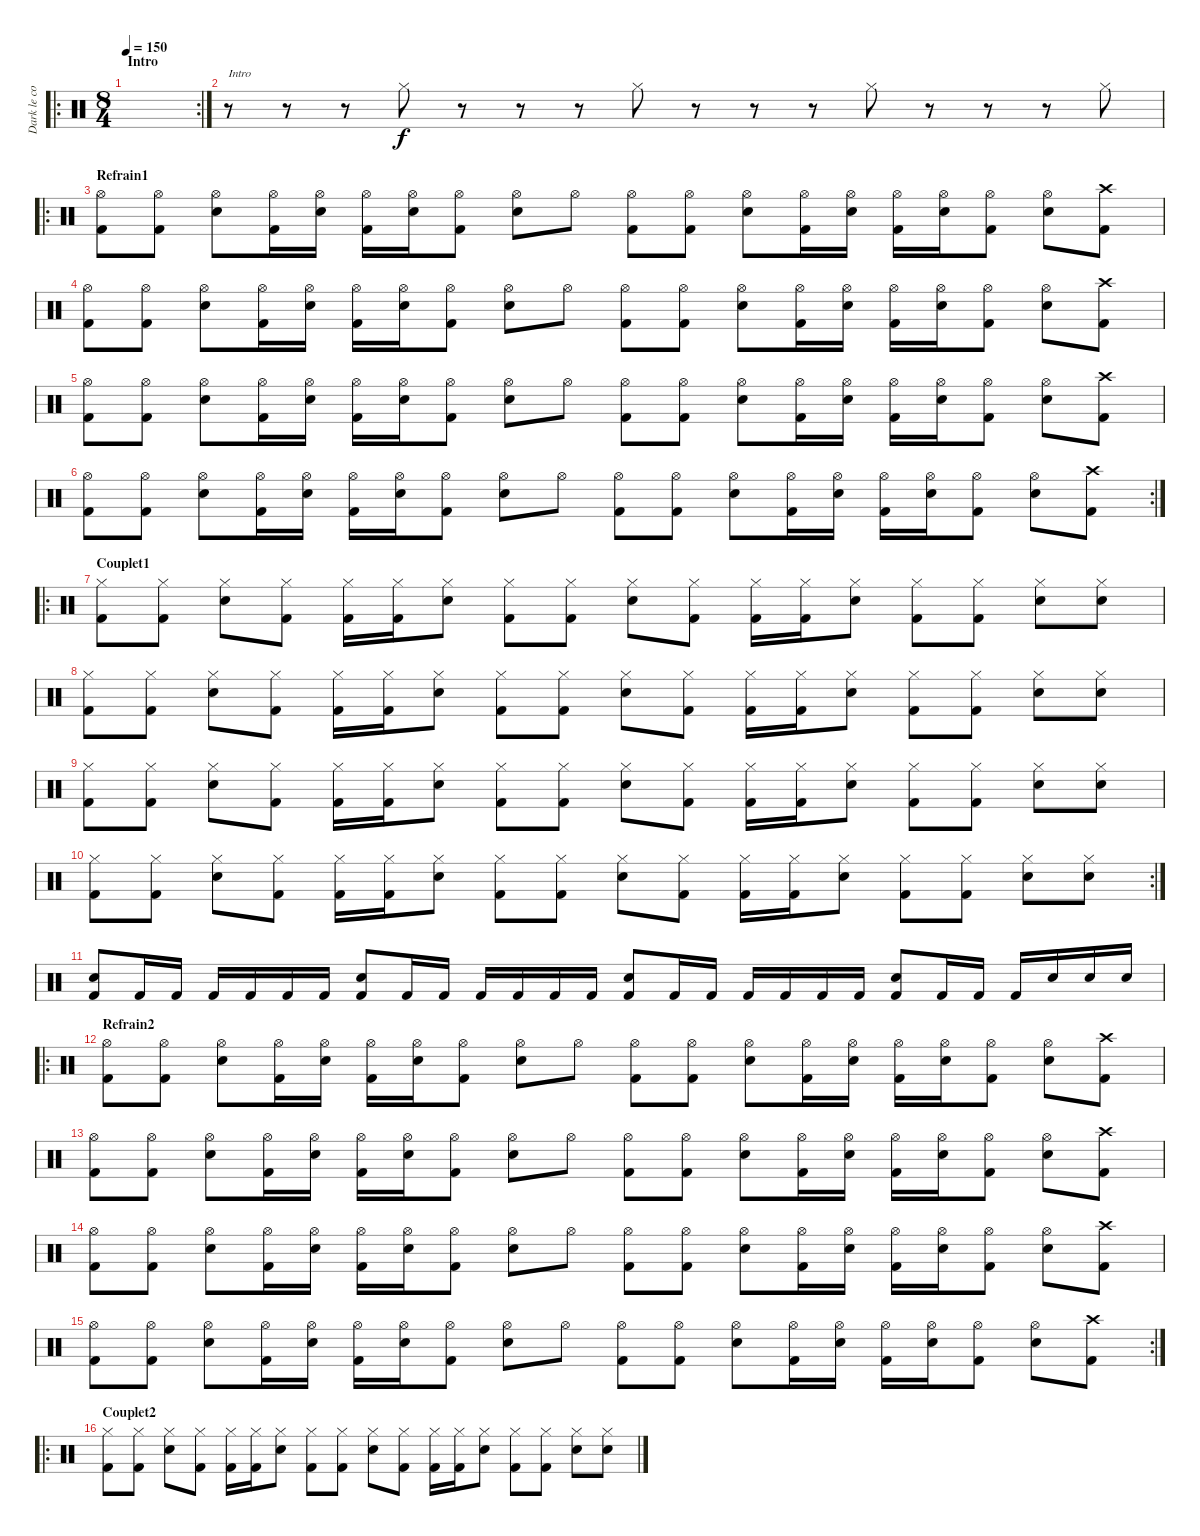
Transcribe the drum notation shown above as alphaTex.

\track ("Dark le coquet" "Dark le co") {instrument percussion}
\staff {score}
\articulation defaults
\ro
\rc 2
\ts (8 4)
\section ("" "Intro")
\tempo 150
\clef neutral
\ks c
|
r.8{txt "Intro"} r.8 r.8 "Hi-Hat (closed)".8 r.8 r.8 r.8 "Hi-Hat (closed)".8 r.8 r.8 r.8 "Hi-Hat (closed)".8 r.8 r.8 r.8 "Hi-Hat (closed)".8 |
\ro
\section ("" "Refrain1")
("Hi-Hat (open)" "Kick (hit) 2").8 ("Hi-Hat (open)" "Kick (hit) 2").8 ("Hi-Hat (open)" "Snare (hit) 2").8 ("Hi-Hat (open)" "Kick (hit) 2").16 ("Hi-Hat (open)" "Snare (hit) 2").16 ("Hi-Hat (open)" "Kick (hit) 2").16 ("Hi-Hat (open)" "Snare (hit) 2").16 ("Hi-Hat (open)" "Kick (hit) 2").8 ("Hi-Hat (open)" "Snare (hit) 2").8 "Hi-Hat (open)".8 ("Hi-Hat (open)" "Kick (hit) 2").8 ("Hi-Hat (open)" "Kick (hit) 2").8 ("Hi-Hat (open)" "Snare (hit) 2").8 ("Hi-Hat (open)" "Kick (hit) 2").16 ("Hi-Hat (open)" "Snare (hit) 2").16 ("Hi-Hat (open)" "Kick (hit) 2").16 ("Hi-Hat (open)" "Snare (hit) 2").16 ("Hi-Hat (open)" "Kick (hit) 2").8 ("Hi-Hat (open)" "Snare (hit) 2").8 ("Crash high (hit)" "Kick (hit) 2").8 |
("Hi-Hat (open)" "Kick (hit) 2").8 ("Hi-Hat (open)" "Kick (hit) 2").8 ("Hi-Hat (open)" "Snare (hit) 2").8 ("Hi-Hat (open)" "Kick (hit) 2").16 ("Hi-Hat (open)" "Snare (hit) 2").16 ("Hi-Hat (open)" "Kick (hit) 2").16 ("Hi-Hat (open)" "Snare (hit) 2").16 ("Hi-Hat (open)" "Kick (hit) 2").8 ("Hi-Hat (open)" "Snare (hit) 2").8 "Hi-Hat (open)".8 ("Hi-Hat (open)" "Kick (hit) 2").8 ("Hi-Hat (open)" "Kick (hit) 2").8 ("Hi-Hat (open)" "Snare (hit) 2").8 ("Hi-Hat (open)" "Kick (hit) 2").16 ("Hi-Hat (open)" "Snare (hit) 2").16 ("Hi-Hat (open)" "Kick (hit) 2").16 ("Hi-Hat (open)" "Snare (hit) 2").16 ("Hi-Hat (open)" "Kick (hit) 2").8 ("Hi-Hat (open)" "Snare (hit) 2").8 ("Crash high (hit)" "Kick (hit) 2").8 |
("Hi-Hat (open)" "Kick (hit) 2").8 ("Hi-Hat (open)" "Kick (hit) 2").8 ("Hi-Hat (open)" "Snare (hit) 2").8 ("Hi-Hat (open)" "Kick (hit) 2").16 ("Hi-Hat (open)" "Snare (hit) 2").16 ("Hi-Hat (open)" "Kick (hit) 2").16 ("Hi-Hat (open)" "Snare (hit) 2").16 ("Hi-Hat (open)" "Kick (hit) 2").8 ("Hi-Hat (open)" "Snare (hit) 2").8 "Hi-Hat (open)".8 ("Hi-Hat (open)" "Kick (hit) 2").8 ("Hi-Hat (open)" "Kick (hit) 2").8 ("Hi-Hat (open)" "Snare (hit) 2").8 ("Hi-Hat (open)" "Kick (hit) 2").16 ("Hi-Hat (open)" "Snare (hit) 2").16 ("Hi-Hat (open)" "Kick (hit) 2").16 ("Hi-Hat (open)" "Snare (hit) 2").16 ("Hi-Hat (open)" "Kick (hit) 2").8 ("Hi-Hat (open)" "Snare (hit) 2").8 ("Crash high (hit)" "Kick (hit) 2").8 |
\rc 2
("Hi-Hat (open)" "Kick (hit) 2").8 ("Hi-Hat (open)" "Kick (hit) 2").8 ("Hi-Hat (open)" "Snare (hit) 2").8 ("Hi-Hat (open)" "Kick (hit) 2").16 ("Hi-Hat (open)" "Snare (hit) 2").16 ("Hi-Hat (open)" "Kick (hit) 2").16 ("Hi-Hat (open)" "Snare (hit) 2").16 ("Hi-Hat (open)" "Kick (hit) 2").8 ("Hi-Hat (open)" "Snare (hit) 2").8 "Hi-Hat (open)".8 ("Hi-Hat (open)" "Kick (hit) 2").8 ("Hi-Hat (open)" "Kick (hit) 2").8 ("Hi-Hat (open)" "Snare (hit) 2").8 ("Hi-Hat (open)" "Kick (hit) 2").16 ("Hi-Hat (open)" "Snare (hit) 2").16 ("Hi-Hat (open)" "Kick (hit) 2").16 ("Hi-Hat (open)" "Snare (hit) 2").16 ("Hi-Hat (open)" "Kick (hit) 2").8 ("Hi-Hat (open)" "Snare (hit) 2").8 ("Crash high (hit)" "Kick (hit) 2").8 |
\ro
\section ("" "Couplet1")
("Hi-Hat (closed)" "Kick (hit) 2").8 ("Hi-Hat (closed)" "Kick (hit) 2").8 ("Hi-Hat (closed)" "Snare (hit) 2").8 ("Hi-Hat (closed)" "Kick (hit) 2").8 ("Hi-Hat (closed)" "Kick (hit) 2").16 ("Hi-Hat (closed)" "Kick (hit) 2").16 ("Hi-Hat (closed)" "Snare (hit) 2").8 ("Hi-Hat (closed)" "Kick (hit) 2").8 ("Hi-Hat (closed)" "Kick (hit) 2").8 ("Hi-Hat (closed)" "Snare (hit) 2").8 ("Hi-Hat (closed)" "Kick (hit) 2").8 ("Hi-Hat (closed)" "Kick (hit) 2").16 ("Hi-Hat (closed)" "Kick (hit) 2").16 ("Hi-Hat (closed)" "Snare (hit) 2").8 ("Hi-Hat (closed)" "Kick (hit) 2").8 ("Hi-Hat (closed)" "Kick (hit) 2").8 ("Hi-Hat (closed)" "Snare (hit) 2").8 ("Hi-Hat (closed)" "Snare (hit) 2").8 |
("Hi-Hat (closed)" "Kick (hit) 2").8 ("Hi-Hat (closed)" "Kick (hit) 2").8 ("Hi-Hat (closed)" "Snare (hit) 2").8 ("Hi-Hat (closed)" "Kick (hit) 2").8 ("Hi-Hat (closed)" "Kick (hit) 2").16 ("Hi-Hat (closed)" "Kick (hit) 2").16 ("Hi-Hat (closed)" "Snare (hit) 2").8 ("Hi-Hat (closed)" "Kick (hit) 2").8 ("Hi-Hat (closed)" "Kick (hit) 2").8 ("Hi-Hat (closed)" "Snare (hit) 2").8 ("Hi-Hat (closed)" "Kick (hit) 2").8 ("Hi-Hat (closed)" "Kick (hit) 2").16 ("Hi-Hat (closed)" "Kick (hit) 2").16 ("Hi-Hat (closed)" "Snare (hit) 2").8 ("Hi-Hat (closed)" "Kick (hit) 2").8 ("Hi-Hat (closed)" "Kick (hit) 2").8 ("Hi-Hat (closed)" "Snare (hit) 2").8 ("Hi-Hat (closed)" "Snare (hit) 2").8 |
("Hi-Hat (closed)" "Kick (hit) 2").8 ("Hi-Hat (closed)" "Kick (hit) 2").8 ("Hi-Hat (closed)" "Snare (hit) 2").8 ("Hi-Hat (closed)" "Kick (hit) 2").8 ("Hi-Hat (closed)" "Kick (hit) 2").16 ("Hi-Hat (closed)" "Kick (hit) 2").16 ("Hi-Hat (closed)" "Snare (hit) 2").8 ("Hi-Hat (closed)" "Kick (hit) 2").8 ("Hi-Hat (closed)" "Kick (hit) 2").8 ("Hi-Hat (closed)" "Snare (hit) 2").8 ("Hi-Hat (closed)" "Kick (hit) 2").8 ("Hi-Hat (closed)" "Kick (hit) 2").16 ("Hi-Hat (closed)" "Kick (hit) 2").16 ("Hi-Hat (closed)" "Snare (hit) 2").8 ("Hi-Hat (closed)" "Kick (hit) 2").8 ("Hi-Hat (closed)" "Kick (hit) 2").8 ("Hi-Hat (closed)" "Snare (hit) 2").8 ("Hi-Hat (closed)" "Snare (hit) 2").8 |
\rc 2
("Hi-Hat (closed)" "Kick (hit) 2").8 ("Hi-Hat (closed)" "Kick (hit) 2").8 ("Hi-Hat (closed)" "Snare (hit) 2").8 ("Hi-Hat (closed)" "Kick (hit) 2").8 ("Hi-Hat (closed)" "Kick (hit) 2").16 ("Hi-Hat (closed)" "Kick (hit) 2").16 ("Hi-Hat (closed)" "Snare (hit) 2").8 ("Hi-Hat (closed)" "Kick (hit) 2").8 ("Hi-Hat (closed)" "Kick (hit) 2").8 ("Hi-Hat (closed)" "Snare (hit) 2").8 ("Hi-Hat (closed)" "Kick (hit) 2").8 ("Hi-Hat (closed)" "Kick (hit) 2").16 ("Hi-Hat (closed)" "Kick (hit) 2").16 ("Hi-Hat (closed)" "Snare (hit) 2").8 ("Hi-Hat (closed)" "Kick (hit) 2").8 ("Hi-Hat (closed)" "Kick (hit) 2").8 ("Hi-Hat (closed)" "Snare (hit) 2").8 ("Hi-Hat (closed)" "Snare (hit) 2").8 |
("Snare (hit) 2" "Kick (hit) 2").8 "Kick (hit) 2".16 "Kick (hit) 2".16 "Kick (hit) 2".16 "Kick (hit) 2".16 "Kick (hit) 2".16 "Kick (hit) 2".16 ("Snare (hit) 2" "Kick (hit) 2").8 "Kick (hit) 2".16 "Kick (hit) 2".16 "Kick (hit) 2".16 "Kick (hit) 2".16 "Kick (hit) 2".16 "Kick (hit) 2".16 ("Snare (hit) 2" "Kick (hit) 2").8 "Kick (hit) 2".16 "Kick (hit) 2".16 "Kick (hit) 2".16 "Kick (hit) 2".16 "Kick (hit) 2".16 "Kick (hit) 2".16 ("Snare (hit) 2" "Kick (hit) 2").8 "Kick (hit) 2".16 "Kick (hit) 2".16 "Kick (hit) 2".16 "Snare (hit) 2".16 "Snare (hit) 2".16 "Snare (hit) 2".16 |
\ro
\section ("" "Refrain2")
("Hi-Hat (open)" "Kick (hit) 2").8 ("Hi-Hat (open)" "Kick (hit) 2").8 ("Hi-Hat (open)" "Snare (hit) 2").8 ("Hi-Hat (open)" "Kick (hit) 2").16 ("Hi-Hat (open)" "Snare (hit) 2").16 ("Hi-Hat (open)" "Kick (hit) 2").16 ("Hi-Hat (open)" "Snare (hit) 2").16 ("Hi-Hat (open)" "Kick (hit) 2").8 ("Hi-Hat (open)" "Snare (hit) 2").8 "Hi-Hat (open)".8 ("Hi-Hat (open)" "Kick (hit) 2").8 ("Hi-Hat (open)" "Kick (hit) 2").8 ("Hi-Hat (open)" "Snare (hit) 2").8 ("Hi-Hat (open)" "Kick (hit) 2").16 ("Hi-Hat (open)" "Snare (hit) 2").16 ("Hi-Hat (open)" "Kick (hit) 2").16 ("Hi-Hat (open)" "Snare (hit) 2").16 ("Hi-Hat (open)" "Kick (hit) 2").8 ("Hi-Hat (open)" "Snare (hit) 2").8 ("Crash high (hit)" "Kick (hit) 2").8 |
("Hi-Hat (open)" "Kick (hit) 2").8 ("Hi-Hat (open)" "Kick (hit) 2").8 ("Hi-Hat (open)" "Snare (hit) 2").8 ("Hi-Hat (open)" "Kick (hit) 2").16 ("Hi-Hat (open)" "Snare (hit) 2").16 ("Hi-Hat (open)" "Kick (hit) 2").16 ("Hi-Hat (open)" "Snare (hit) 2").16 ("Hi-Hat (open)" "Kick (hit) 2").8 ("Hi-Hat (open)" "Snare (hit) 2").8 "Hi-Hat (open)".8 ("Hi-Hat (open)" "Kick (hit) 2").8 ("Hi-Hat (open)" "Kick (hit) 2").8 ("Hi-Hat (open)" "Snare (hit) 2").8 ("Hi-Hat (open)" "Kick (hit) 2").16 ("Hi-Hat (open)" "Snare (hit) 2").16 ("Hi-Hat (open)" "Kick (hit) 2").16 ("Hi-Hat (open)" "Snare (hit) 2").16 ("Hi-Hat (open)" "Kick (hit) 2").8 ("Hi-Hat (open)" "Snare (hit) 2").8 ("Crash high (hit)" "Kick (hit) 2").8 |
("Hi-Hat (open)" "Kick (hit) 2").8 ("Hi-Hat (open)" "Kick (hit) 2").8 ("Hi-Hat (open)" "Snare (hit) 2").8 ("Hi-Hat (open)" "Kick (hit) 2").16 ("Hi-Hat (open)" "Snare (hit) 2").16 ("Hi-Hat (open)" "Kick (hit) 2").16 ("Hi-Hat (open)" "Snare (hit) 2").16 ("Hi-Hat (open)" "Kick (hit) 2").8 ("Hi-Hat (open)" "Snare (hit) 2").8 "Hi-Hat (open)".8 ("Hi-Hat (open)" "Kick (hit) 2").8 ("Hi-Hat (open)" "Kick (hit) 2").8 ("Hi-Hat (open)" "Snare (hit) 2").8 ("Hi-Hat (open)" "Kick (hit) 2").16 ("Hi-Hat (open)" "Snare (hit) 2").16 ("Hi-Hat (open)" "Kick (hit) 2").16 ("Hi-Hat (open)" "Snare (hit) 2").16 ("Hi-Hat (open)" "Kick (hit) 2").8 ("Hi-Hat (open)" "Snare (hit) 2").8 ("Crash high (hit)" "Kick (hit) 2").8 |
\rc 2
("Hi-Hat (open)" "Kick (hit) 2").8 ("Hi-Hat (open)" "Kick (hit) 2").8 ("Hi-Hat (open)" "Snare (hit) 2").8 ("Hi-Hat (open)" "Kick (hit) 2").16 ("Hi-Hat (open)" "Snare (hit) 2").16 ("Hi-Hat (open)" "Kick (hit) 2").16 ("Hi-Hat (open)" "Snare (hit) 2").16 ("Hi-Hat (open)" "Kick (hit) 2").8 ("Hi-Hat (open)" "Snare (hit) 2").8 "Hi-Hat (open)".8 ("Hi-Hat (open)" "Kick (hit) 2").8 ("Hi-Hat (open)" "Kick (hit) 2").8 ("Hi-Hat (open)" "Snare (hit) 2").8 ("Hi-Hat (open)" "Kick (hit) 2").16 ("Hi-Hat (open)" "Snare (hit) 2").16 ("Hi-Hat (open)" "Kick (hit) 2").16 ("Hi-Hat (open)" "Snare (hit) 2").16 ("Hi-Hat (open)" "Kick (hit) 2").8 ("Hi-Hat (open)" "Snare (hit) 2").8 ("Crash high (hit)" "Kick (hit) 2").8 |
\ro
\section ("" "Couplet2")
("Hi-Hat (closed)" "Kick (hit) 2").8 ("Hi-Hat (closed)" "Kick (hit) 2").8 ("Hi-Hat (closed)" "Snare (hit) 2").8 ("Hi-Hat (closed)" "Kick (hit) 2").8 ("Hi-Hat (closed)" "Kick (hit) 2").16 ("Hi-Hat (closed)" "Kick (hit) 2").16 ("Hi-Hat (closed)" "Snare (hit) 2").8 ("Hi-Hat (closed)" "Kick (hit) 2").8 ("Hi-Hat (closed)" "Kick (hit) 2").8 ("Hi-Hat (closed)" "Snare (hit) 2").8 ("Hi-Hat (closed)" "Kick (hit) 2").8 ("Hi-Hat (closed)" "Kick (hit) 2").16 ("Hi-Hat (closed)" "Kick (hit) 2").16 ("Hi-Hat (closed)" "Snare (hit) 2").8 ("Hi-Hat (closed)" "Kick (hit) 2").8 ("Hi-Hat (closed)" "Kick (hit) 2").8 ("Hi-Hat (closed)" "Snare (hit) 2").8 ("Hi-Hat (closed)" "Snare (hit) 2").8
